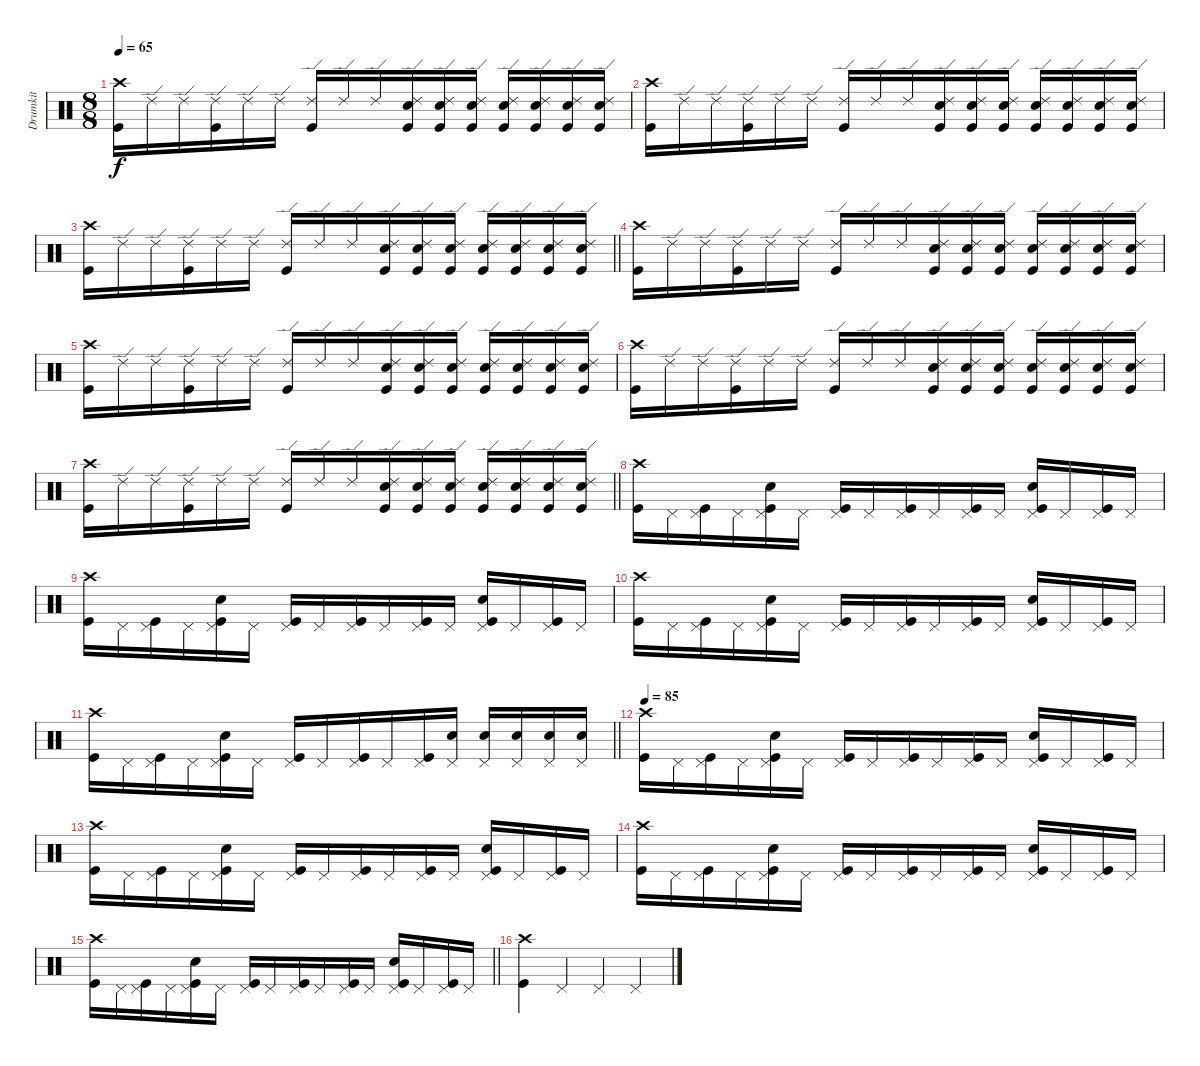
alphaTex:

\track ("Drumkit" "Drumkit") {instrument percussion}
\staff {score}
\articulation defaults
\ts (8 8)
\tempo 65
\clef neutral
\ks c
("Kick (hit)" "Crash high (hit)").16{dy f} "Ride (edge) 2".16 "Ride (edge) 2".16 ("Kick (hit)" "Ride (edge) 2").16 "Ride (edge) 2".16 "Ride (edge) 2".16 ("Kick (hit)" "Ride (edge) 2").16 "Ride (edge) 2".16 "Ride (edge) 2".16 ("Kick (hit)" "Snare (hit) 2" "Ride (edge) 2").16 ("Kick (hit)" "Snare (hit) 2" "Ride (edge) 2").16 ("Kick (hit)" "Snare (hit) 2" "Ride (edge) 2").16 ("Kick (hit)" "Snare (hit) 2" "Ride (edge) 2").16 ("Kick (hit)" "Snare (hit) 2" "Ride (edge) 2").16 ("Kick (hit)" "Snare (hit) 2" "Ride (edge) 2").16 ("Kick (hit)" "Snare (hit) 2" "Ride (edge) 2").16 |
("Kick (hit)" "Crash high (hit)").16 "Ride (edge) 2".16 "Ride (edge) 2".16 ("Kick (hit)" "Ride (edge) 2").16 "Ride (edge) 2".16 "Ride (edge) 2".16 ("Kick (hit)" "Ride (edge) 2").16 "Ride (edge) 2".16 "Ride (edge) 2".16 ("Kick (hit)" "Snare (hit) 2" "Ride (edge) 2").16 ("Kick (hit)" "Snare (hit) 2" "Ride (edge) 2").16 ("Kick (hit)" "Snare (hit) 2" "Ride (edge) 2").16 ("Kick (hit)" "Snare (hit) 2" "Ride (edge) 2").16 ("Kick (hit)" "Snare (hit) 2" "Ride (edge) 2").16 ("Kick (hit)" "Snare (hit) 2" "Ride (edge) 2").16 ("Kick (hit)" "Snare (hit) 2" "Ride (edge) 2").16 |
\barLineRight lightlight
("Kick (hit)" "Crash high (hit)").16 "Ride (edge) 2".16 "Ride (edge) 2".16 ("Kick (hit)" "Ride (edge) 2").16 "Ride (edge) 2".16 "Ride (edge) 2".16 ("Kick (hit)" "Ride (edge) 2").16 "Ride (edge) 2".16 "Ride (edge) 2".16 ("Kick (hit)" "Snare (hit) 2" "Ride (edge) 2").16 ("Kick (hit)" "Snare (hit) 2" "Ride (edge) 2").16 ("Kick (hit)" "Snare (hit) 2" "Ride (edge) 2").16 ("Kick (hit)" "Snare (hit) 2" "Ride (edge) 2").16 ("Kick (hit)" "Snare (hit) 2" "Ride (edge) 2").16 ("Kick (hit)" "Snare (hit) 2" "Ride (edge) 2").16 ("Kick (hit)" "Snare (hit) 2" "Ride (edge) 2").16 |
("Kick (hit)" "Crash high (hit)").16 "Ride (edge) 2".16 "Ride (edge) 2".16 ("Kick (hit)" "Ride (edge) 2").16 "Ride (edge) 2".16 "Ride (edge) 2".16 ("Kick (hit)" "Ride (edge) 2").16 "Ride (edge) 2".16 "Ride (edge) 2".16 ("Kick (hit)" "Snare (hit) 2" "Ride (edge) 2").16 ("Kick (hit)" "Snare (hit) 2" "Ride (edge) 2").16 ("Kick (hit)" "Snare (hit) 2" "Ride (edge) 2").16 ("Kick (hit)" "Snare (hit) 2" "Ride (edge) 2").16 ("Kick (hit)" "Snare (hit) 2" "Ride (edge) 2").16 ("Kick (hit)" "Snare (hit) 2" "Ride (edge) 2").16 ("Kick (hit)" "Snare (hit) 2" "Ride (edge) 2").16 |
("Kick (hit)" "Crash high (hit)").16 "Ride (edge) 2".16 "Ride (edge) 2".16 ("Kick (hit)" "Ride (edge) 2").16 "Ride (edge) 2".16 "Ride (edge) 2".16 ("Kick (hit)" "Ride (edge) 2").16 "Ride (edge) 2".16 "Ride (edge) 2".16 ("Kick (hit)" "Snare (hit) 2" "Ride (edge) 2").16 ("Kick (hit)" "Snare (hit) 2" "Ride (edge) 2").16 ("Kick (hit)" "Snare (hit) 2" "Ride (edge) 2").16 ("Kick (hit)" "Snare (hit) 2" "Ride (edge) 2").16 ("Kick (hit)" "Snare (hit) 2" "Ride (edge) 2").16 ("Kick (hit)" "Snare (hit) 2" "Ride (edge) 2").16 ("Kick (hit)" "Snare (hit) 2" "Ride (edge) 2").16 |
("Kick (hit)" "Crash high (hit)").16 "Ride (edge) 2".16 "Ride (edge) 2".16 ("Kick (hit)" "Ride (edge) 2").16 "Ride (edge) 2".16 "Ride (edge) 2".16 ("Kick (hit)" "Ride (edge) 2").16 "Ride (edge) 2".16 "Ride (edge) 2".16 ("Kick (hit)" "Snare (hit) 2" "Ride (edge) 2").16 ("Kick (hit)" "Snare (hit) 2" "Ride (edge) 2").16 ("Kick (hit)" "Snare (hit) 2" "Ride (edge) 2").16 ("Kick (hit)" "Snare (hit) 2" "Ride (edge) 2").16 ("Kick (hit)" "Snare (hit) 2" "Ride (edge) 2").16 ("Kick (hit)" "Snare (hit) 2" "Ride (edge) 2").16 ("Kick (hit)" "Snare (hit) 2" "Ride (edge) 2").16 |
\barLineRight lightlight
("Kick (hit)" "Crash high (hit)").16 "Ride (edge) 2".16 "Ride (edge) 2".16 ("Kick (hit)" "Ride (edge) 2").16 "Ride (edge) 2".16 "Ride (edge) 2".16 ("Kick (hit)" "Ride (edge) 2").16 "Ride (edge) 2".16 "Ride (edge) 2".16 ("Kick (hit)" "Snare (hit) 2" "Ride (edge) 2").16 ("Kick (hit)" "Snare (hit) 2" "Ride (edge) 2").16 ("Kick (hit)" "Snare (hit) 2" "Ride (edge) 2").16 ("Kick (hit)" "Snare (hit) 2" "Ride (edge) 2").16 ("Kick (hit)" "Snare (hit) 2" "Ride (edge) 2").16 ("Kick (hit)" "Snare (hit) 2" "Ride (edge) 2").16 ("Kick (hit)" "Snare (hit) 2" "Ride (edge) 2").16 |
("Kick (hit)" "Crash high (hit)").16 "Pedal Hi-Hat (hit)".16 ("Kick (hit)" "Pedal Hi-Hat (hit)").16 "Pedal Hi-Hat (hit)".16 ("Kick (hit)" "Snare (hit) 2" "Pedal Hi-Hat (hit)").16 "Pedal Hi-Hat (hit)".16 ("Kick (hit)" "Pedal Hi-Hat (hit)").16 "Pedal Hi-Hat (hit)".16 ("Kick (hit)" "Pedal Hi-Hat (hit)").16 "Pedal Hi-Hat (hit)".16 ("Kick (hit)" "Pedal Hi-Hat (hit)").16 "Pedal Hi-Hat (hit)".16 ("Kick (hit)" "Snare (hit) 2" "Pedal Hi-Hat (hit)").16 "Pedal Hi-Hat (hit)".16 ("Kick (hit)" "Pedal Hi-Hat (hit)").16 "Pedal Hi-Hat (hit)".16 |
("Kick (hit)" "Crash high (hit)").16 "Pedal Hi-Hat (hit)".16 ("Kick (hit)" "Pedal Hi-Hat (hit)").16 "Pedal Hi-Hat (hit)".16 ("Kick (hit)" "Snare (hit) 2" "Pedal Hi-Hat (hit)").16 "Pedal Hi-Hat (hit)".16 ("Kick (hit)" "Pedal Hi-Hat (hit)").16 "Pedal Hi-Hat (hit)".16 ("Kick (hit)" "Pedal Hi-Hat (hit)").16 "Pedal Hi-Hat (hit)".16 ("Kick (hit)" "Pedal Hi-Hat (hit)").16 "Pedal Hi-Hat (hit)".16 ("Kick (hit)" "Snare (hit) 2" "Pedal Hi-Hat (hit)").16 "Pedal Hi-Hat (hit)".16 ("Kick (hit)" "Pedal Hi-Hat (hit)").16 "Pedal Hi-Hat (hit)".16 |
("Kick (hit)" "Crash high (hit)").16 "Pedal Hi-Hat (hit)".16 ("Kick (hit)" "Pedal Hi-Hat (hit)").16 "Pedal Hi-Hat (hit)".16 ("Kick (hit)" "Snare (hit) 2" "Pedal Hi-Hat (hit)").16 "Pedal Hi-Hat (hit)".16 ("Kick (hit)" "Pedal Hi-Hat (hit)").16 "Pedal Hi-Hat (hit)".16 ("Kick (hit)" "Pedal Hi-Hat (hit)").16 "Pedal Hi-Hat (hit)".16 ("Kick (hit)" "Pedal Hi-Hat (hit)").16 "Pedal Hi-Hat (hit)".16 ("Kick (hit)" "Snare (hit) 2" "Pedal Hi-Hat (hit)").16 "Pedal Hi-Hat (hit)".16 ("Kick (hit)" "Pedal Hi-Hat (hit)").16 "Pedal Hi-Hat (hit)".16 |
\barLineRight lightlight
("Kick (hit)" "Crash high (hit)").16 "Pedal Hi-Hat (hit)".16 ("Kick (hit)" "Pedal Hi-Hat (hit)").16 "Pedal Hi-Hat (hit)".16 ("Kick (hit)" "Snare (hit) 2" "Pedal Hi-Hat (hit)").16 "Pedal Hi-Hat (hit)".16 ("Kick (hit)" "Pedal Hi-Hat (hit)").16 "Pedal Hi-Hat (hit)".16 ("Kick (hit)" "Pedal Hi-Hat (hit)").16 "Pedal Hi-Hat (hit)".16 ("Kick (hit)" "Pedal Hi-Hat (hit)").16 ("Snare (hit) 2" "Pedal Hi-Hat (hit)").16 ("Snare (hit) 2" "Pedal Hi-Hat (hit)").16 ("Snare (hit) 2" "Pedal Hi-Hat (hit)").16 ("Snare (hit) 2" "Pedal Hi-Hat (hit)").16 ("Snare (hit) 2" "Pedal Hi-Hat (hit)").16 |
\tempo 85
("Kick (hit)" "Crash high (hit)").16 "Pedal Hi-Hat (hit)".16 ("Kick (hit)" "Pedal Hi-Hat (hit)").16 "Pedal Hi-Hat (hit)".16 ("Kick (hit)" "Snare (hit) 2" "Pedal Hi-Hat (hit)").16 "Pedal Hi-Hat (hit)".16 ("Kick (hit)" "Pedal Hi-Hat (hit)").16 "Pedal Hi-Hat (hit)".16 ("Kick (hit)" "Pedal Hi-Hat (hit)").16 "Pedal Hi-Hat (hit)".16 ("Kick (hit)" "Pedal Hi-Hat (hit)").16 "Pedal Hi-Hat (hit)".16 ("Kick (hit)" "Snare (hit) 2" "Pedal Hi-Hat (hit)").16 "Pedal Hi-Hat (hit)".16 ("Kick (hit)" "Pedal Hi-Hat (hit)").16 "Pedal Hi-Hat (hit)".16 |
("Kick (hit)" "Crash high (hit)").16 "Pedal Hi-Hat (hit)".16 ("Kick (hit)" "Pedal Hi-Hat (hit)").16 "Pedal Hi-Hat (hit)".16 ("Kick (hit)" "Snare (hit) 2" "Pedal Hi-Hat (hit)").16 "Pedal Hi-Hat (hit)".16 ("Kick (hit)" "Pedal Hi-Hat (hit)").16 "Pedal Hi-Hat (hit)".16 ("Kick (hit)" "Pedal Hi-Hat (hit)").16 "Pedal Hi-Hat (hit)".16 ("Kick (hit)" "Pedal Hi-Hat (hit)").16 "Pedal Hi-Hat (hit)".16 ("Kick (hit)" "Snare (hit) 2" "Pedal Hi-Hat (hit)").16 "Pedal Hi-Hat (hit)".16 ("Kick (hit)" "Pedal Hi-Hat (hit)").16 "Pedal Hi-Hat (hit)".16 |
("Kick (hit)" "Crash high (hit)").16 "Pedal Hi-Hat (hit)".16 ("Kick (hit)" "Pedal Hi-Hat (hit)").16 "Pedal Hi-Hat (hit)".16 ("Kick (hit)" "Snare (hit) 2" "Pedal Hi-Hat (hit)").16 "Pedal Hi-Hat (hit)".16 ("Kick (hit)" "Pedal Hi-Hat (hit)").16 "Pedal Hi-Hat (hit)".16 ("Kick (hit)" "Pedal Hi-Hat (hit)").16 "Pedal Hi-Hat (hit)".16 ("Kick (hit)" "Pedal Hi-Hat (hit)").16 "Pedal Hi-Hat (hit)".16 ("Kick (hit)" "Snare (hit) 2" "Pedal Hi-Hat (hit)").16 "Pedal Hi-Hat (hit)".16 ("Kick (hit)" "Pedal Hi-Hat (hit)").16 "Pedal Hi-Hat (hit)".16 |
\barLineRight lightlight
("Kick (hit)" "Crash high (hit)").16 "Pedal Hi-Hat (hit)".16 ("Kick (hit)" "Pedal Hi-Hat (hit)").16 "Pedal Hi-Hat (hit)".16 ("Kick (hit)" "Snare (hit) 2" "Pedal Hi-Hat (hit)").16 "Pedal Hi-Hat (hit)".16 ("Kick (hit)" "Pedal Hi-Hat (hit)").16 "Pedal Hi-Hat (hit)".16 ("Kick (hit)" "Pedal Hi-Hat (hit)").16 "Pedal Hi-Hat (hit)".16 ("Kick (hit)" "Pedal Hi-Hat (hit)").16 "Pedal Hi-Hat (hit)".16 ("Kick (hit)" "Snare (hit) 2" "Pedal Hi-Hat (hit)").16 "Pedal Hi-Hat (hit)".16 ("Kick (hit)" "Pedal Hi-Hat (hit)").16 "Pedal Hi-Hat (hit)".16 |
("Kick (hit)" "Crash high (hit)").4 "Pedal Hi-Hat (hit)".4 "Pedal Hi-Hat (hit)".4 "Pedal Hi-Hat (hit)".4
